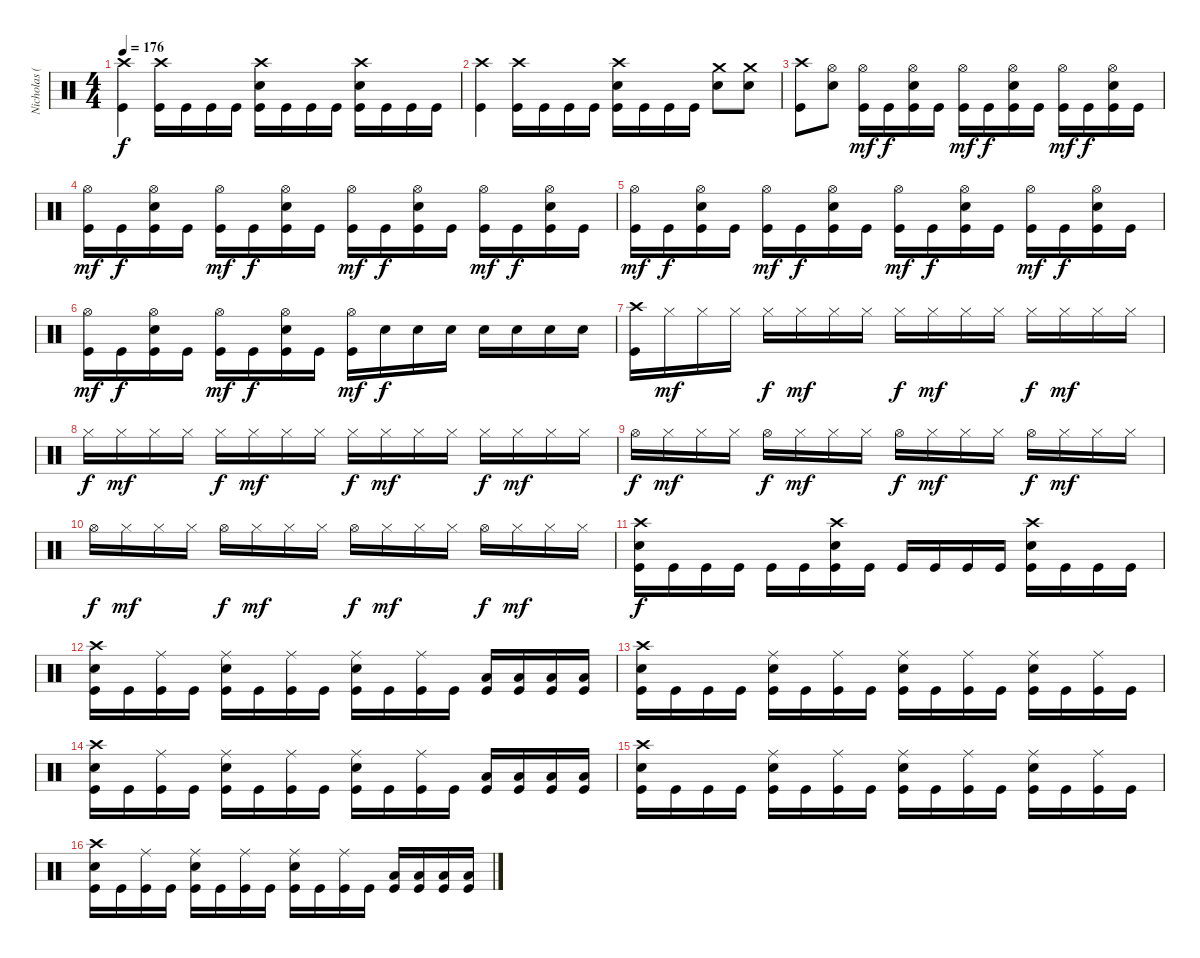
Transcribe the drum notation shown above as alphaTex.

\track ("Nicholas (Drums)" "Nicholas (") {instrument percussion}
\staff {score}
\articulation defaults
\ts (4 4)
\tempo 176
\clef neutral
\ks c
("Crash high (hit)" "Kick (hit)").4{dy f} ("Crash high (hit)" "Kick (hit)").16 "Kick (hit)".16 "Kick (hit)".16 "Kick (hit)".16 ("Crash high (hit)" "Electric Snare (hit)" "Kick (hit)").16 "Kick (hit)".16 "Kick (hit)".16 "Kick (hit)".16 ("Crash high (hit)" "Electric Snare (hit)" "Kick (hit)").16 "Kick (hit)".16 "Kick (hit)".16 "Kick (hit)".16 |
("Crash high (hit)" "Kick (hit)").4 ("Crash high (hit)" "Kick (hit)").16 "Kick (hit)".16 "Kick (hit)".16 "Kick (hit)".16 ("Crash high (hit)" "Electric Snare (hit)" "Kick (hit)").16 "Kick (hit)".16 "Kick (hit)".16 "Kick (hit)".16 ("Crash medium (hit)" "Electric Snare (hit)").8 ("Crash medium (hit)" "Electric Snare (hit)").8 |
("Crash high (hit)" "Kick (hit)").8 ("Hi-Hat (open)" "Electric Snare (hit)").8 ("Hi-Hat (open)" "Kick (hit)").16{dy mf} "Kick (hit)".16{dy f} ("Hi-Hat (open)" "Electric Snare (hit)" "Kick (hit)").16 "Kick (hit)".16 ("Hi-Hat (open)" "Kick (hit)").16{dy mf} "Kick (hit)".16{dy f} ("Hi-Hat (open)" "Electric Snare (hit)" "Kick (hit)").16 "Kick (hit)".16 ("Hi-Hat (open)" "Kick (hit)").16{dy mf} "Kick (hit)".16{dy f} ("Hi-Hat (open)" "Electric Snare (hit)" "Kick (hit)").16 "Kick (hit)".16 |
("Hi-Hat (open)" "Kick (hit)").16{dy mf} "Kick (hit)".16{dy f} ("Hi-Hat (open)" "Electric Snare (hit)" "Kick (hit)").16 "Kick (hit)".16 ("Hi-Hat (open)" "Kick (hit)").16{dy mf} "Kick (hit)".16{dy f} ("Hi-Hat (open)" "Electric Snare (hit)" "Kick (hit)").16 "Kick (hit)".16 ("Hi-Hat (open)" "Kick (hit)").16{dy mf} "Kick (hit)".16{dy f} ("Hi-Hat (open)" "Electric Snare (hit)" "Kick (hit)").16 "Kick (hit)".16 ("Hi-Hat (open)" "Kick (hit)").16{dy mf} "Kick (hit)".16{dy f} ("Hi-Hat (open)" "Electric Snare (hit)" "Kick (hit)").16 "Kick (hit)".16 |
("Hi-Hat (open)" "Kick (hit)").16{dy mf} "Kick (hit)".16{dy f} ("Hi-Hat (open)" "Electric Snare (hit)" "Kick (hit)").16 "Kick (hit)".16 ("Hi-Hat (open)" "Kick (hit)").16{dy mf} "Kick (hit)".16{dy f} ("Hi-Hat (open)" "Electric Snare (hit)" "Kick (hit)").16 "Kick (hit)".16 ("Hi-Hat (open)" "Kick (hit)").16{dy mf} "Kick (hit)".16{dy f} ("Hi-Hat (open)" "Electric Snare (hit)" "Kick (hit)").16 "Kick (hit)".16 ("Hi-Hat (open)" "Kick (hit)").16{dy mf} "Kick (hit)".16{dy f} ("Hi-Hat (open)" "Electric Snare (hit)" "Kick (hit)").16 "Kick (hit)".16 |
("Hi-Hat (open)" "Kick (hit)").16{dy mf} "Kick (hit)".16{dy f} ("Hi-Hat (open)" "Electric Snare (hit)" "Kick (hit)").16 "Kick (hit)".16 ("Hi-Hat (open)" "Kick (hit)").16{dy mf} "Kick (hit)".16{dy f} ("Hi-Hat (open)" "Electric Snare (hit)" "Kick (hit)").16 "Kick (hit)".16 ("Hi-Hat (open)" "Kick (hit)").16{dy mf} "Electric Snare (hit)".16{dy f} "Electric Snare (hit)".16 "Electric Snare (hit)".16 "Electric Snare (hit)".16 "Electric Snare (hit)".16 "Electric Snare (hit)".16 "Electric Snare (hit)".16 |
("Crash high (hit)" "Kick (hit)").16 "Hi-Hat (closed)".16{dy mf} "Hi-Hat (closed)".16 "Hi-Hat (closed)".16 "Hi-Hat (closed)".16{dy f} "Hi-Hat (closed)".16{dy mf} "Hi-Hat (closed)".16 "Hi-Hat (closed)".16 "Hi-Hat (closed)".16{dy f} "Hi-Hat (closed)".16{dy mf} "Hi-Hat (closed)".16 "Hi-Hat (closed)".16 "Hi-Hat (closed)".16{dy f} "Hi-Hat (closed)".16{dy mf} "Hi-Hat (closed)".16 "Hi-Hat (closed)".16 |
"Hi-Hat (closed)".16{dy f} "Hi-Hat (closed)".16{dy mf} "Hi-Hat (closed)".16 "Hi-Hat (closed)".16 "Hi-Hat (closed)".16{dy f} "Hi-Hat (closed)".16{dy mf} "Hi-Hat (closed)".16 "Hi-Hat (closed)".16 "Hi-Hat (closed)".16{dy f} "Hi-Hat (closed)".16{dy mf} "Hi-Hat (closed)".16 "Hi-Hat (closed)".16 "Hi-Hat (closed)".16{dy f} "Hi-Hat (closed)".16{dy mf} "Hi-Hat (closed)".16 "Hi-Hat (closed)".16 |
"Hi-Hat (open)".16{dy f} "Hi-Hat (closed)".16{dy mf} "Hi-Hat (closed)".16 "Hi-Hat (closed)".16 "Hi-Hat (open)".16{dy f} "Hi-Hat (closed)".16{dy mf} "Hi-Hat (closed)".16 "Hi-Hat (closed)".16 "Hi-Hat (open)".16{dy f} "Hi-Hat (closed)".16{dy mf} "Hi-Hat (closed)".16 "Hi-Hat (closed)".16 "Hi-Hat (open)".16{dy f} "Hi-Hat (closed)".16{dy mf} "Hi-Hat (closed)".16 "Hi-Hat (closed)".16 |
"Hi-Hat (open)".16{dy f} "Hi-Hat (closed)".16{dy mf} "Hi-Hat (closed)".16 "Hi-Hat (closed)".16 "Hi-Hat (open)".16{dy f} "Hi-Hat (closed)".16{dy mf} "Hi-Hat (closed)".16 "Hi-Hat (closed)".16 "Hi-Hat (open)".16{dy f} "Hi-Hat (closed)".16{dy mf} "Hi-Hat (closed)".16 "Hi-Hat (closed)".16 "Hi-Hat (open)".16{dy f} "Hi-Hat (closed)".16{dy mf} "Hi-Hat (closed)".16 "Hi-Hat (closed)".16 |
("Crash high (hit)" "Electric Snare (hit)" "Kick (hit)").16{dy f} "Kick (hit)".16 "Kick (hit)".16 "Kick (hit)".16 "Kick (hit)".16 "Kick (hit)".16 ("Crash high (hit)" "Electric Snare (hit)" "Kick (hit)").16 "Kick (hit)".16 "Kick (hit)".16 "Kick (hit)".16 "Kick (hit)".16 "Kick (hit)".16 ("Crash high (hit)" "Electric Snare (hit)" "Kick (hit)").16 "Kick (hit)".16 "Kick (hit)".16 "Kick (hit)".16 |
("Crash high (hit)" "Electric Snare (hit)" "Kick (hit)").16 "Kick (hit)".16 ("Ride (middle)" "Kick (hit)").16 "Kick (hit)".16 ("Ride (middle)" "Electric Snare (hit)" "Kick (hit)").16 "Kick (hit)".16 ("Ride (middle)" "Kick (hit)").16 "Kick (hit)".16 ("Ride (middle)" "Electric Snare (hit)" "Kick (hit)").16 "Kick (hit)".16 ("Ride (middle)" "Kick (hit)").16 "Kick (hit)".16 ("Low Floor Tom (hit)" "Kick (hit)").16 ("Low Floor Tom (hit)" "Kick (hit)").16 ("Low Floor Tom (hit)" "Kick (hit)").16 ("Low Floor Tom (hit)" "Kick (hit)").16 |
("Crash high (hit)" "Electric Snare (hit)" "Kick (hit)").16 "Kick (hit)".16 "Kick (hit)".16 "Kick (hit)".16 ("Ride (middle)" "Electric Snare (hit)" "Kick (hit)").16 "Kick (hit)".16 ("Ride (middle)" "Kick (hit)").16 "Kick (hit)".16 ("Ride (middle)" "Electric Snare (hit)" "Kick (hit)").16 "Kick (hit)".16 ("Ride (middle)" "Kick (hit)").16 "Kick (hit)".16 ("Ride (middle)" "Electric Snare (hit)" "Kick (hit)").16 "Kick (hit)".16 ("Ride (middle)" "Kick (hit)").16 "Kick (hit)".16 |
("Crash high (hit)" "Electric Snare (hit)" "Kick (hit)").16 "Kick (hit)".16 ("Ride (middle)" "Kick (hit)").16 "Kick (hit)".16 ("Ride (middle)" "Electric Snare (hit)" "Kick (hit)").16 "Kick (hit)".16 ("Ride (middle)" "Kick (hit)").16 "Kick (hit)".16 ("Ride (middle)" "Electric Snare (hit)" "Kick (hit)").16 "Kick (hit)".16 ("Ride (middle)" "Kick (hit)").16 "Kick (hit)".16 ("Low Floor Tom (hit)" "Kick (hit)").16 ("Low Floor Tom (hit)" "Kick (hit)").16 ("Low Floor Tom (hit)" "Kick (hit)").16 ("Low Floor Tom (hit)" "Kick (hit)").16 |
("Crash high (hit)" "Electric Snare (hit)" "Kick (hit)").16 "Kick (hit)".16 "Kick (hit)".16 "Kick (hit)".16 ("Ride (middle)" "Electric Snare (hit)" "Kick (hit)").16 "Kick (hit)".16 ("Ride (middle)" "Kick (hit)").16 "Kick (hit)".16 ("Ride (middle)" "Electric Snare (hit)" "Kick (hit)").16 "Kick (hit)".16 ("Ride (middle)" "Kick (hit)").16 "Kick (hit)".16 ("Ride (middle)" "Electric Snare (hit)" "Kick (hit)").16 "Kick (hit)".16 ("Ride (middle)" "Kick (hit)").16 "Kick (hit)".16 |
("Crash high (hit)" "Electric Snare (hit)" "Kick (hit)").16 "Kick (hit)".16 ("Ride (middle)" "Kick (hit)").16 "Kick (hit)".16 ("Ride (middle)" "Electric Snare (hit)" "Kick (hit)").16 "Kick (hit)".16 ("Ride (middle)" "Kick (hit)").16 "Kick (hit)".16 ("Ride (middle)" "Electric Snare (hit)" "Kick (hit)").16 "Kick (hit)".16 ("Ride (middle)" "Kick (hit)").16 "Kick (hit)".16 ("Low Floor Tom (hit)" "Kick (hit)").16 ("Low Floor Tom (hit)" "Kick (hit)").16 ("Low Floor Tom (hit)" "Kick (hit)").16 ("Low Floor Tom (hit)" "Kick (hit)").16
